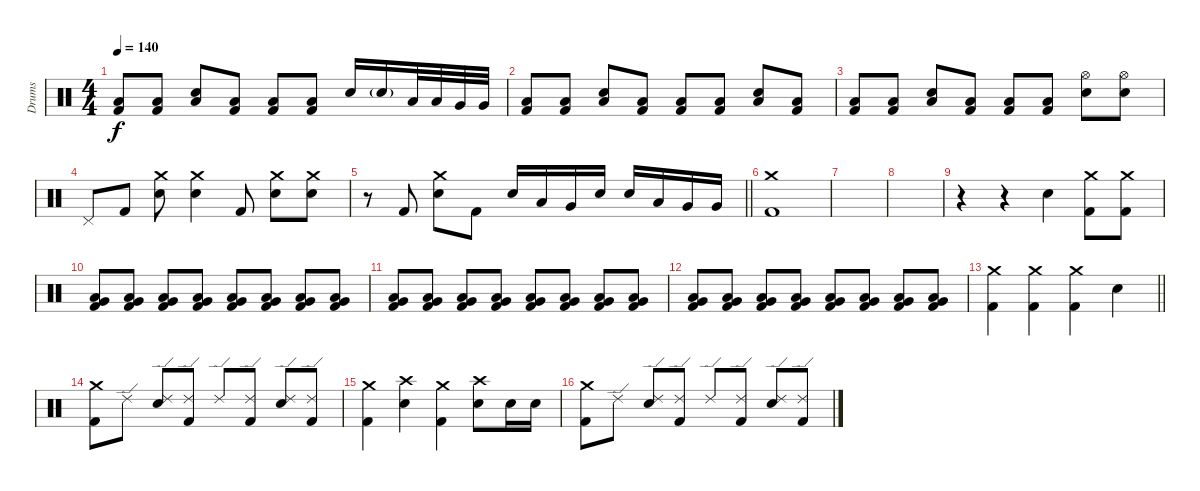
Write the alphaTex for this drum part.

\track ("Drums" "Drums") {instrument percussion}
\staff {score}
\articulation defaults
\ts (4 4)
\tempo 140
\clef neutral
\ks c
("Low Floor Tom (hit)" "Kick (hit) 2").8{dy f} ("Low Floor Tom (hit)" "Kick (hit) 2").8 ("Electric Snare (hit)" "Low Floor Tom (hit)").8 ("Low Floor Tom (hit)" "Kick (hit) 2").8 ("Low Floor Tom (hit)" "Kick (hit) 2").8 ("Low Floor Tom (hit)" "Kick (hit) 2").8 "Electric Snare (hit)".16 "Electric Snare (hit)"{g}.16 "Low Tom (hit)".32 "Low Tom (hit)".32 "Very Low Tom (hit)".32 "Very Low Tom (hit)".32 |
("Low Floor Tom (hit)" "Kick (hit) 2").8 ("Low Floor Tom (hit)" "Kick (hit) 2").8 ("Electric Snare (hit)" "Low Floor Tom (hit)").8 ("Low Floor Tom (hit)" "Kick (hit) 2").8 ("Low Floor Tom (hit)" "Kick (hit) 2").8 ("Low Floor Tom (hit)" "Kick (hit) 2").8 ("Electric Snare (hit)" "Low Floor Tom (hit)").8 ("Low Floor Tom (hit)" "Kick (hit) 2").8 |
("Low Floor Tom (hit)" "Kick (hit) 2").8 ("Low Floor Tom (hit)" "Kick (hit) 2").8 ("Electric Snare (hit)" "Low Floor Tom (hit)").8 ("Low Floor Tom (hit)" "Kick (hit) 2").8 ("Low Floor Tom (hit)" "Kick (hit) 2").8 ("Low Floor Tom (hit)" "Kick (hit) 2").8 ("Hi-Hat (open)" "Electric Snare (hit)").8 ("Hi-Hat (open)" "Electric Snare (hit)").8 |
"Pedal Hi-Hat (hit)".8 "Kick (hit) 2".8 ("Crash medium (hit)" "Electric Snare (hit)").8 ("Crash medium (hit)" "Electric Snare (hit)").4 "Kick (hit) 2".8 ("Crash medium (hit)" "Electric Snare (hit)").8 ("Crash medium (hit)" "Electric Snare (hit)").8 |
\barLineRight lightlight
r.8 "Kick (hit) 2".8 ("Crash medium (hit)" "Electric Snare (hit)").8 "Kick (hit) 2".8 "Electric Snare (hit)".16 "Low Tom (hit)".16 "Very Low Tom (hit)".16 "Electric Snare (hit)".16 "Electric Snare (hit)".16 "Low Tom (hit)".16 "Very Low Tom (hit)".16 "Very Low Tom (hit)".16 |
("Crash medium (hit)" "Kick (hit) 2").1 |
|
|
r.4 r.4 "Electric Snare (hit)".4 ("Crash medium (hit)" "Kick (hit) 2").8 ("Crash medium (hit)" "Kick (hit) 2").8 |
("Very Low Tom (hit)" "Low Floor Tom (hit)" "Kick (hit) 2").8 ("Very Low Tom (hit)" "Low Floor Tom (hit)" "Kick (hit) 2").8 ("Very Low Tom (hit)" "Low Floor Tom (hit)" "Kick (hit) 2").8 ("Very Low Tom (hit)" "Low Floor Tom (hit)" "Kick (hit) 2").8 ("Very Low Tom (hit)" "Low Floor Tom (hit)" "Kick (hit) 2").8 ("Very Low Tom (hit)" "Low Floor Tom (hit)" "Kick (hit) 2").8 ("Very Low Tom (hit)" "Low Floor Tom (hit)" "Kick (hit) 2").8 ("Very Low Tom (hit)" "Low Floor Tom (hit)" "Kick (hit) 2").8 |
("Very Low Tom (hit)" "Low Floor Tom (hit)" "Kick (hit) 2").8 ("Very Low Tom (hit)" "Low Floor Tom (hit)" "Kick (hit) 2").8 ("Very Low Tom (hit)" "Low Floor Tom (hit)" "Kick (hit) 2").8 ("Very Low Tom (hit)" "Low Floor Tom (hit)" "Kick (hit) 2").8 ("Very Low Tom (hit)" "Low Floor Tom (hit)" "Kick (hit) 2").8 ("Very Low Tom (hit)" "Low Floor Tom (hit)" "Kick (hit) 2").8 ("Very Low Tom (hit)" "Low Floor Tom (hit)" "Kick (hit) 2").8 ("Very Low Tom (hit)" "Low Floor Tom (hit)" "Kick (hit) 2").8 |
("Very Low Tom (hit)" "Low Floor Tom (hit)" "Kick (hit) 2").8 ("Very Low Tom (hit)" "Low Floor Tom (hit)" "Kick (hit) 2").8 ("Very Low Tom (hit)" "Low Floor Tom (hit)" "Kick (hit) 2").8 ("Very Low Tom (hit)" "Low Floor Tom (hit)" "Kick (hit) 2").8 ("Very Low Tom (hit)" "Low Floor Tom (hit)" "Kick (hit) 2").8 ("Very Low Tom (hit)" "Low Floor Tom (hit)" "Kick (hit) 2").8 ("Very Low Tom (hit)" "Low Floor Tom (hit)" "Kick (hit) 2").8 ("Very Low Tom (hit)" "Low Floor Tom (hit)" "Kick (hit) 2").8 |
\barLineRight lightlight
("Crash medium (hit)" "Kick (hit) 2").4 ("Crash medium (hit)" "Kick (hit) 2").4 ("Crash medium (hit)" "Kick (hit) 2").4 "Electric Snare (hit)".4 |
("Crash medium (hit)" "Kick (hit) 2").8 "Ride (edge) 2".8 ("Ride (edge) 2" "Electric Snare (hit)").8 ("Ride (edge) 2" "Kick (hit) 2").8 "Ride (edge) 2".8 ("Ride (edge) 2" "Kick (hit) 2").8 ("Ride (edge) 2" "Electric Snare (hit)").8 ("Ride (edge) 2" "Kick (hit) 2").8 |
("Crash medium (hit)" "Kick (hit) 2").4 ("Crash high (hit)" "Electric Snare (hit)").4 ("Crash medium (hit)" "Kick (hit) 2").4 ("Crash high (hit)" "Electric Snare (hit)").8 "Electric Snare (hit)".16 "Electric Snare (hit)".16 |
("Crash medium (hit)" "Kick (hit) 2").8 "Ride (edge) 2".8 ("Ride (edge) 2" "Electric Snare (hit)").8 ("Ride (edge) 2" "Kick (hit) 2").8 "Ride (edge) 2".8 ("Ride (edge) 2" "Kick (hit) 2").8 ("Ride (edge) 2" "Electric Snare (hit)").8 ("Ride (edge) 2" "Kick (hit) 2").8
